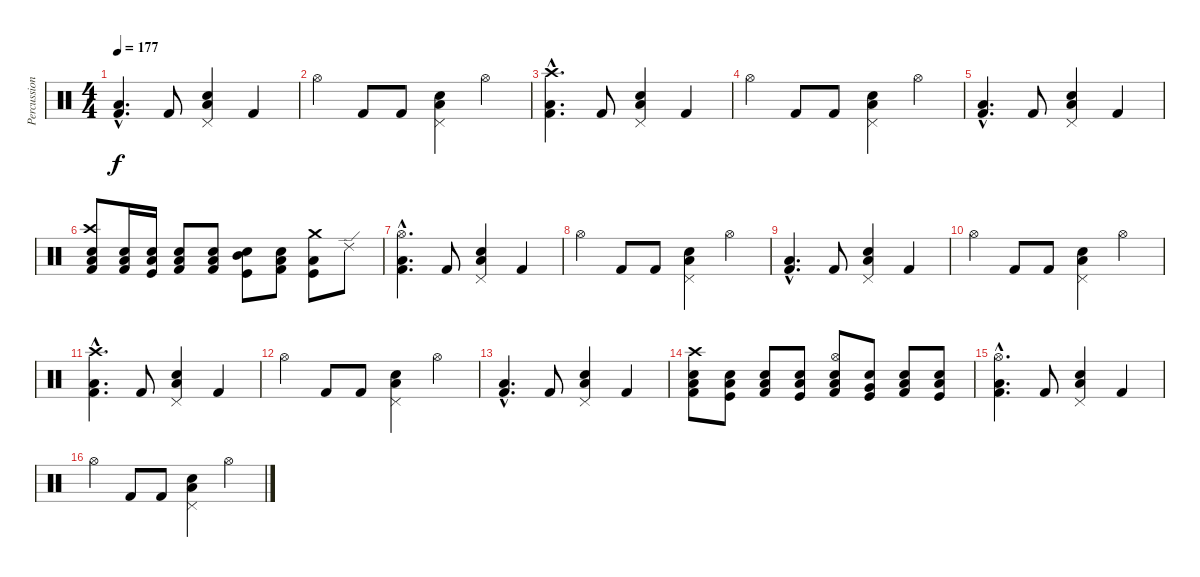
\track ("Percussions" "Percussion") {instrument percussion}
\staff {score}
\articulation defaults
\ts (4 4)
\tempo 177
\clef neutral
\ks c
("Low Tom (hit)"{hac} "Kick (hit) 2"{hac}).4{d dy f} "Kick (hit) 2".8 ("Pedal Hi-Hat (hit)" "Snare (hit) 2" "Low Floor Tom (hit)").4 "Kick (hit) 2".4 |
"Hi-Hat (open)".4 "Kick (hit) 2".8 "Kick (hit) 2".8 ("Low Tom (hit)" "Snare (hit) 2" "Pedal Hi-Hat (hit)").4 "Hi-Hat (open)".4 |
("Low Tom (hit)"{hac} "Crash high (hit)"{hac} "Kick (hit) 2"{hac}).4{d} "Kick (hit) 2".8 ("Pedal Hi-Hat (hit)" "Snare (hit) 2" "Low Floor Tom (hit)").4 "Kick (hit) 2".4 |
"Hi-Hat (open)".4 "Kick (hit) 2".8 "Kick (hit) 2".8 ("Low Tom (hit)" "Snare (hit) 2" "Pedal Hi-Hat (hit)").4 "Hi-Hat (open)".4 |
("Low Tom (hit)"{hac} "Kick (hit) 2"{hac}).4{d} "Kick (hit) 2".8 ("Pedal Hi-Hat (hit)" "Snare (hit) 2" "Low Floor Tom (hit)").4 "Kick (hit) 2".4 |
("Crash high (hit)" "Low Tom (hit)" "Electric Snare (hit)" "Kick (hit) 2").8 ("Low Tom (hit)" "Electric Snare (hit)" "Kick (hit) 2").16 ("Low Tom (hit)" "Electric Snare (hit)" "Kick (hit)").16 ("Low Floor Tom (hit)" "Electric Snare (hit)" "Kick (hit) 2").8 ("Low Tom (hit)" "Electric Snare (hit)" "Kick (hit) 2").8 ("Electric Snare (hit)" "Mid Tom (hit)" "Kick (hit)").8 ("Electric Snare (hit)" "Low Tom (hit)" "Kick (hit) 2").8 ("Low Tom (hit)" "Kick (hit)" "Crash medium (hit)").8 "Ride (edge) 2".8 |
("Low Tom (hit)"{hac} "Hi-Hat (open)"{hac} "Kick (hit) 2"{hac}).4{d} "Kick (hit) 2".8 ("Pedal Hi-Hat (hit)" "Snare (hit) 2" "Low Floor Tom (hit)").4 "Kick (hit) 2".4 |
"Hi-Hat (open)".4 "Kick (hit) 2".8 "Kick (hit) 2".8 ("Low Tom (hit)" "Snare (hit) 2" "Pedal Hi-Hat (hit)").4 "Hi-Hat (open)".4 |
("Low Tom (hit)"{hac} "Kick (hit) 2"{hac}).4{d} "Kick (hit) 2".8 ("Pedal Hi-Hat (hit)" "Snare (hit) 2" "Low Floor Tom (hit)").4 "Kick (hit) 2".4 |
"Hi-Hat (open)".4 "Kick (hit) 2".8 "Kick (hit) 2".8 ("Low Tom (hit)" "Snare (hit) 2" "Pedal Hi-Hat (hit)").4 "Hi-Hat (open)".4 |
("Low Tom (hit)"{hac} "Crash high (hit)"{hac} "Kick (hit) 2"{hac}).4{d} "Kick (hit) 2".8 ("Pedal Hi-Hat (hit)" "Snare (hit) 2" "Low Floor Tom (hit)").4 "Kick (hit) 2".4 |
"Hi-Hat (open)".4 "Kick (hit) 2".8 "Kick (hit) 2".8 ("Low Tom (hit)" "Snare (hit) 2" "Pedal Hi-Hat (hit)").4 "Hi-Hat (open)".4 |
("Low Tom (hit)"{hac} "Kick (hit) 2"{hac}).4{d} "Kick (hit) 2".8 ("Pedal Hi-Hat (hit)" "Snare (hit) 2" "Low Floor Tom (hit)").4 "Kick (hit) 2".4 |
("Crash high (hit)" "Low Tom (hit)" "Snare (hit) 2" "Kick (hit) 2").8 ("Low Tom (hit)" "Snare (hit) 2" "Kick (hit)").8 ("Low Tom (hit)" "Snare (hit) 2" "Kick (hit) 2").8 ("Low Tom (hit)" "Snare (hit) 2" "Kick (hit)").8 ("Hi-Hat (open)" "Low Floor Tom (hit)" "Electric Snare (hit)" "Kick (hit) 2").8 ("Very Low Tom (hit)" "Snare (hit) 2" "Kick (hit)").8 ("Low Tom (hit)" "Snare (hit) 2" "Kick (hit) 2").8 ("Low Tom (hit)" "Snare (hit) 2" "Kick (hit)").8 |
("Low Tom (hit)"{hac} "Hi-Hat (open)"{hac} "Kick (hit) 2"{hac}).4{d} "Kick (hit) 2".8 ("Pedal Hi-Hat (hit)" "Snare (hit) 2" "Low Floor Tom (hit)").4 "Kick (hit) 2".4 |
"Hi-Hat (open)".4 "Kick (hit) 2".8 "Kick (hit) 2".8 ("Low Tom (hit)" "Snare (hit) 2" "Pedal Hi-Hat (hit)").4 "Hi-Hat (open)".4
